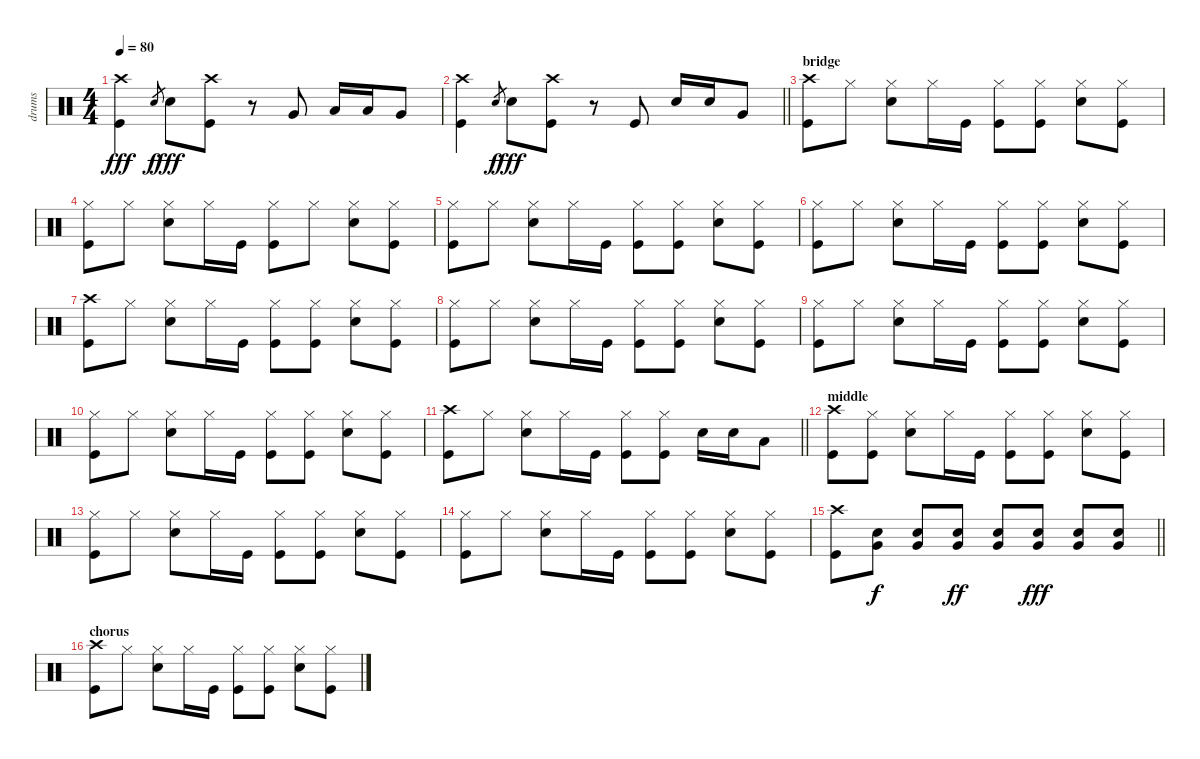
\track ("drums" "drums") {instrument percussion}
\staff {score}
\articulation defaults
\ts (4 4)
\tempo 80
\clef neutral
\ks c
("Crash high (hit)" "Kick (hit)").4{dy fff} "Snare (hit) 2".8{gr dy f} "Snare (hit) 2".8{dy fff} ("Crash high (hit)" "Kick (hit)").8 r.8 "Very Low Tom (hit)".8 "Low Tom (hit)".16 "Low Tom (hit)".16 "Very Low Tom (hit)".8 |
\barLineRight lightlight
("Crash high (hit)" "Kick (hit)").4 "Snare (hit) 2".8{gr dy f} "Snare (hit) 2".8{dy fff} ("Crash high (hit)" "Kick (hit)").8 r.8 "Kick (hit)".8 "Snare (hit) 2".16 "Snare (hit) 2".16 "Very Low Tom (hit)".8 |
\section ("" "bridge")
("Crash high (hit)" "Kick (hit)").8 "Hi-Hat (closed)".8 ("Hi-Hat (closed)" "Snare (hit) 2").8 "Hi-Hat (closed)".16 "Kick (hit)".16 ("Hi-Hat (closed)" "Kick (hit)").8 ("Hi-Hat (closed)" "Kick (hit)").8 ("Hi-Hat (closed)" "Snare (hit) 2").8 ("Hi-Hat (closed)" "Kick (hit)").8 |
("Hi-Hat (closed)" "Kick (hit)").8 "Hi-Hat (closed)".8 ("Hi-Hat (closed)" "Snare (hit) 2").8 "Hi-Hat (closed)".16 "Kick (hit)".16 ("Hi-Hat (closed)" "Kick (hit)").8 "Hi-Hat (closed)".8 ("Hi-Hat (closed)" "Snare (hit) 2").8 ("Hi-Hat (closed)" "Kick (hit)").8 |
("Hi-Hat (closed)" "Kick (hit)").8 "Hi-Hat (closed)".8 ("Hi-Hat (closed)" "Snare (hit) 2").8 "Hi-Hat (closed)".16 "Kick (hit)".16 ("Hi-Hat (closed)" "Kick (hit)").8 ("Hi-Hat (closed)" "Kick (hit)").8 ("Hi-Hat (closed)" "Snare (hit) 2").8 ("Hi-Hat (closed)" "Kick (hit)").8 |
("Hi-Hat (closed)" "Kick (hit)").8 "Hi-Hat (closed)".8 ("Hi-Hat (closed)" "Snare (hit) 2").8 "Hi-Hat (closed)".16 "Kick (hit)".16 ("Hi-Hat (closed)" "Kick (hit)").8 ("Hi-Hat (closed)" "Kick (hit)").8 ("Hi-Hat (closed)" "Snare (hit) 2").8 ("Hi-Hat (closed)" "Kick (hit)").8 |
("Crash high (hit)" "Kick (hit)").8 "Hi-Hat (closed)".8 ("Hi-Hat (closed)" "Snare (hit) 2").8 "Hi-Hat (closed)".16 "Kick (hit)".16 ("Hi-Hat (closed)" "Kick (hit)").8 ("Hi-Hat (closed)" "Kick (hit)").8 ("Hi-Hat (closed)" "Snare (hit) 2").8 ("Hi-Hat (closed)" "Kick (hit)").8 |
("Hi-Hat (closed)" "Kick (hit)").8 "Hi-Hat (closed)".8 ("Hi-Hat (closed)" "Snare (hit) 2").8 "Hi-Hat (closed)".16 "Kick (hit)".16 ("Hi-Hat (closed)" "Kick (hit)").8 ("Hi-Hat (closed)" "Kick (hit)").8 ("Hi-Hat (closed)" "Snare (hit) 2").8 ("Hi-Hat (closed)" "Kick (hit)").8 |
("Hi-Hat (closed)" "Kick (hit)").8 "Hi-Hat (closed)".8 ("Hi-Hat (closed)" "Snare (hit) 2").8 "Hi-Hat (closed)".16 "Kick (hit)".16 ("Hi-Hat (closed)" "Kick (hit)").8 ("Hi-Hat (closed)" "Kick (hit)").8 ("Hi-Hat (closed)" "Snare (hit) 2").8 ("Hi-Hat (closed)" "Kick (hit)").8 |
("Hi-Hat (closed)" "Kick (hit)").8 "Hi-Hat (closed)".8 ("Hi-Hat (closed)" "Snare (hit) 2").8 "Hi-Hat (closed)".16 "Kick (hit)".16 ("Hi-Hat (closed)" "Kick (hit)").8 ("Hi-Hat (closed)" "Kick (hit)").8 ("Hi-Hat (closed)" "Snare (hit) 2").8 ("Hi-Hat (closed)" "Kick (hit)").8 |
\barLineRight lightlight
("Crash high (hit)" "Kick (hit)").8 "Hi-Hat (closed)".8 ("Hi-Hat (closed)" "Snare (hit) 2").8 "Hi-Hat (closed)".16 "Kick (hit)".16 ("Hi-Hat (closed)" "Kick (hit)").8 ("Hi-Hat (closed)" "Kick (hit)").8 "Snare (hit) 2".16 "Snare (hit) 2".16 "Low Tom (hit)".8 |
\section ("" "middle")
("Crash high (hit)" "Kick (hit)").8 ("Hi-Hat (closed)" "Kick (hit)").8 ("Hi-Hat (closed)" "Snare (hit) 2").8 "Hi-Hat (closed)".16 "Kick (hit)".16 ("Hi-Hat (closed)" "Kick (hit)").8 ("Hi-Hat (closed)" "Kick (hit)").8 ("Hi-Hat (closed)" "Snare (hit) 2").8 ("Hi-Hat (closed)" "Kick (hit)").8 |
("Hi-Hat (closed)" "Kick (hit)").8 "Hi-Hat (closed)".8 ("Hi-Hat (closed)" "Snare (hit) 2").8 "Hi-Hat (closed)".16 "Kick (hit)".16 ("Hi-Hat (closed)" "Kick (hit)").8 ("Hi-Hat (closed)" "Kick (hit)").8 ("Hi-Hat (closed)" "Snare (hit) 2").8 ("Hi-Hat (closed)" "Kick (hit)").8 |
("Hi-Hat (closed)" "Kick (hit)").8 "Hi-Hat (closed)".8 ("Hi-Hat (closed)" "Snare (hit) 2").8 "Hi-Hat (closed)".16 "Kick (hit)".16 ("Hi-Hat (closed)" "Kick (hit)").8 ("Hi-Hat (closed)" "Kick (hit)").8 ("Hi-Hat (closed)" "Snare (hit) 2").8 ("Hi-Hat (closed)" "Kick (hit)").8 |
\barLineRight lightlight
("Crash high (hit)" "Kick (hit)").8 ("Very Low Tom (hit)" "Snare (hit) 2").8{dy f} ("Very Low Tom (hit)" "Snare (hit) 2").8 ("Very Low Tom (hit)" "Snare (hit) 2").8{dy ff} ("Very Low Tom (hit)" "Snare (hit) 2").8 ("Very Low Tom (hit)" "Snare (hit) 2").8{dy fff} ("Very Low Tom (hit)" "Snare (hit) 2").8 ("Very Low Tom (hit)" "Snare (hit) 2").8 |
\section ("" "chorus")
("Crash high (hit)" "Kick (hit)").8 "Hi-Hat (closed)".8 ("Hi-Hat (closed)" "Snare (hit) 2").8 "Hi-Hat (closed)".16 "Kick (hit)".16 ("Hi-Hat (closed)" "Kick (hit)").8 ("Hi-Hat (closed)" "Kick (hit)").8 ("Hi-Hat (closed)" "Snare (hit) 2").8 ("Hi-Hat (closed)" "Kick (hit)").8
